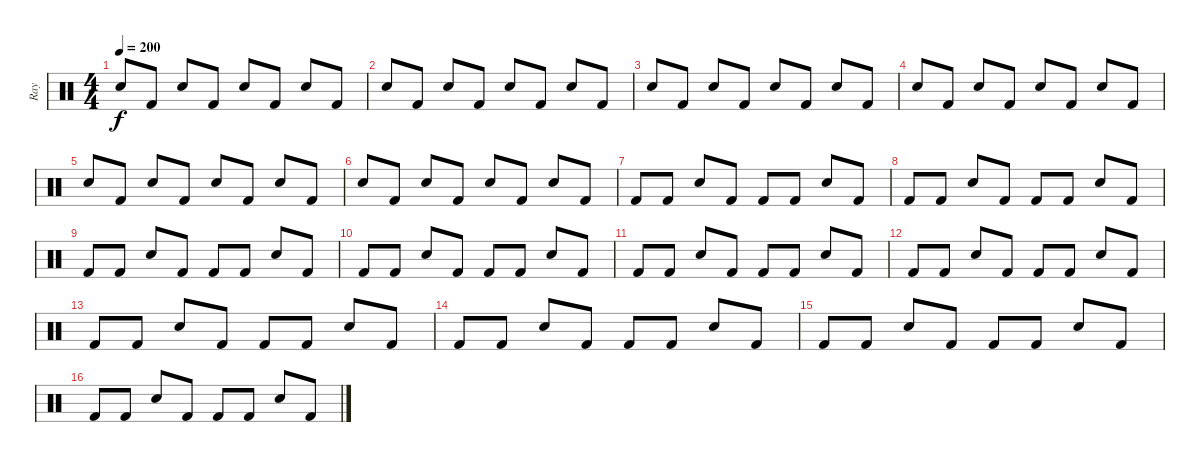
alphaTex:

\track ("Ray" "Ray") {instrument percussion}
\staff {score}
\articulation defaults
\ts (4 4)
\tempo 200
\clef neutral
\ks c "Electric Snare (hit)".8{dy f} "Kick (hit) 2".8 "Electric Snare (hit)".8 "Kick (hit) 2".8 "Electric Snare (hit)".8 "Kick (hit) 2".8 "Electric Snare (hit)".8 "Kick (hit) 2".8
|
"Electric Snare (hit)".8 "Kick (hit) 2".8 "Electric Snare (hit)".8 "Kick (hit) 2".8 "Electric Snare (hit)".8 "Kick (hit) 2".8 "Electric Snare (hit)".8 "Kick (hit) 2".8 |
"Electric Snare (hit)".8 "Kick (hit) 2".8 "Electric Snare (hit)".8 "Kick (hit) 2".8 "Electric Snare (hit)".8 "Kick (hit) 2".8 "Electric Snare (hit)".8 "Kick (hit) 2".8 |
"Electric Snare (hit)".8 "Kick (hit) 2".8 "Electric Snare (hit)".8 "Kick (hit) 2".8 "Electric Snare (hit)".8 "Kick (hit) 2".8 "Electric Snare (hit)".8 "Kick (hit) 2".8 |
"Electric Snare (hit)".8 "Kick (hit) 2".8 "Electric Snare (hit)".8 "Kick (hit) 2".8 "Electric Snare (hit)".8 "Kick (hit) 2".8 "Electric Snare (hit)".8 "Kick (hit) 2".8 |
"Electric Snare (hit)".8 "Kick (hit) 2".8 "Electric Snare (hit)".8 "Kick (hit) 2".8 "Electric Snare (hit)".8 "Kick (hit) 2".8 "Electric Snare (hit)".8 "Kick (hit) 2".8 |
"Kick (hit) 2".8 "Kick (hit) 2".8 "Electric Snare (hit)".8 "Kick (hit) 2".8 "Kick (hit) 2".8 "Kick (hit) 2".8 "Electric Snare (hit)".8 "Kick (hit) 2".8 |
"Kick (hit) 2".8 "Kick (hit) 2".8 "Electric Snare (hit)".8 "Kick (hit) 2".8 "Kick (hit) 2".8 "Kick (hit) 2".8 "Electric Snare (hit)".8 "Kick (hit) 2".8 |
"Kick (hit) 2".8 "Kick (hit) 2".8 "Electric Snare (hit)".8 "Kick (hit) 2".8 "Kick (hit) 2".8 "Kick (hit) 2".8 "Electric Snare (hit)".8 "Kick (hit) 2".8 |
"Kick (hit) 2".8 "Kick (hit) 2".8 "Electric Snare (hit)".8 "Kick (hit) 2".8 "Kick (hit) 2".8 "Kick (hit) 2".8 "Electric Snare (hit)".8 "Kick (hit) 2".8 |
"Kick (hit) 2".8 "Kick (hit) 2".8 "Electric Snare (hit)".8 "Kick (hit) 2".8 "Kick (hit) 2".8 "Kick (hit) 2".8 "Electric Snare (hit)".8 "Kick (hit) 2".8 |
"Kick (hit) 2".8 "Kick (hit) 2".8 "Electric Snare (hit)".8 "Kick (hit) 2".8 "Kick (hit) 2".8 "Kick (hit) 2".8 "Electric Snare (hit)".8 "Kick (hit) 2".8 |
"Kick (hit) 2".8 "Kick (hit) 2".8 "Electric Snare (hit)".8 "Kick (hit) 2".8 "Kick (hit) 2".8 "Kick (hit) 2".8 "Electric Snare (hit)".8 "Kick (hit) 2".8 |
"Kick (hit) 2".8 "Kick (hit) 2".8 "Electric Snare (hit)".8 "Kick (hit) 2".8 "Kick (hit) 2".8 "Kick (hit) 2".8 "Electric Snare (hit)".8 "Kick (hit) 2".8 |
"Kick (hit) 2".8 "Kick (hit) 2".8 "Electric Snare (hit)".8 "Kick (hit) 2".8 "Kick (hit) 2".8 "Kick (hit) 2".8 "Electric Snare (hit)".8 "Kick (hit) 2".8 |
"Kick (hit) 2".8 "Kick (hit) 2".8 "Electric Snare (hit)".8 "Kick (hit) 2".8 "Kick (hit) 2".8 "Kick (hit) 2".8 "Electric Snare (hit)".8 "Kick (hit) 2".8
